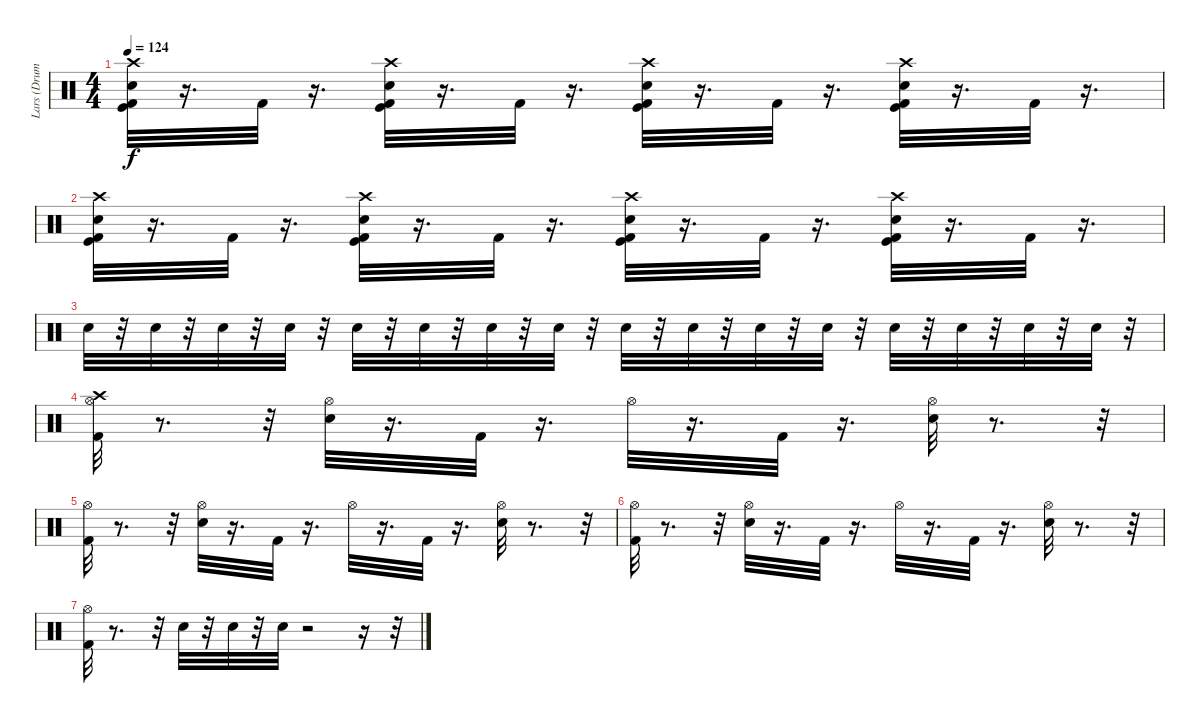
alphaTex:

\track ("Lars (Drums)" "Lars (Drum") {instrument percussion}
\staff {score}
\articulation defaults
\ts (4 4)
\tempo 124
\clef neutral
\ks c
("Crash high (hit)" "Electric Snare (hit)" "Kick (hit) 2" "Kick (hit)").32{dy f} r.16{d} "Kick (hit) 2".32 r.16{d} ("Crash high (hit)" "Electric Snare (hit)" "Kick (hit)" "Kick (hit) 2").32 r.16{d} "Kick (hit) 2".32 r.16{d} ("Crash high (hit)" "Electric Snare (hit)" "Kick (hit)" "Kick (hit) 2").32 r.16{d} "Kick (hit) 2".32 r.16{d} ("Crash high (hit)" "Electric Snare (hit)" "Kick (hit)" "Kick (hit) 2").32 r.16{d} "Kick (hit) 2".32 r.16{d} |
("Crash high (hit)" "Electric Snare (hit)" "Kick (hit) 2" "Kick (hit)").32 r.16{d} "Kick (hit) 2".32 r.16{d} ("Crash high (hit)" "Electric Snare (hit)" "Kick (hit)" "Kick (hit) 2").32 r.16{d} "Kick (hit) 2".32 r.16{d} ("Crash high (hit)" "Electric Snare (hit)" "Kick (hit)" "Kick (hit) 2").32 r.16{d} "Kick (hit) 2".32 r.16{d} ("Crash high (hit)" "Electric Snare (hit)" "Kick (hit)" "Kick (hit) 2").32 r.16{d} "Kick (hit) 2".32 r.16{d} |
"Electric Snare (hit)".32 r.32 "Electric Snare (hit)".32 r.32 "Electric Snare (hit)".32 r.32 "Electric Snare (hit)".32 r.32 "Electric Snare (hit)".32 r.32 "Electric Snare (hit)".32 r.32 "Electric Snare (hit)".32 r.32 "Electric Snare (hit)".32 r.32 "Electric Snare (hit)".32 r.32 "Electric Snare (hit)".32 r.32 "Electric Snare (hit)".32 r.32 "Electric Snare (hit)".32 r.32 "Electric Snare (hit)".32 r.32 "Electric Snare (hit)".32 r.32 "Electric Snare (hit)".32 r.32 "Electric Snare (hit)".32 r.32 |
("Hi-Hat (open)" "Crash high (hit)" "Kick (hit) 2").32 r.8{d} r.32 ("Electric Snare (hit)" "Hi-Hat (open)").32 r.16{d} "Kick (hit) 2".32 r.16{d} "Hi-Hat (open)".32 r.16{d} "Kick (hit) 2".32 r.16{d} ("Electric Snare (hit)" "Hi-Hat (open)").32 r.8{d} r.32 |
("Hi-Hat (open)" "Kick (hit) 2").32 r.8{d} r.32 ("Electric Snare (hit)" "Hi-Hat (open)").32 r.16{d} "Kick (hit) 2".32 r.16{d} "Hi-Hat (open)".32 r.16{d} "Kick (hit) 2".32 r.16{d} ("Electric Snare (hit)" "Hi-Hat (open)").32 r.8{d} r.32 |
("Hi-Hat (open)" "Kick (hit) 2").32 r.8{d} r.32 ("Electric Snare (hit)" "Hi-Hat (open)").32 r.16{d} "Kick (hit) 2".32 r.16{d} "Hi-Hat (open)".32 r.16{d} "Kick (hit) 2".32 r.16{d} ("Electric Snare (hit)" "Hi-Hat (open)").32 r.8{d} r.32 |
("Hi-Hat (open)" "Kick (hit) 2").32 r.8{d} r.32 "Electric Snare (hit)".32 r.32 "Electric Snare (hit)".32 r.32 "Electric Snare (hit)".32 r.2 r.16 r.32
